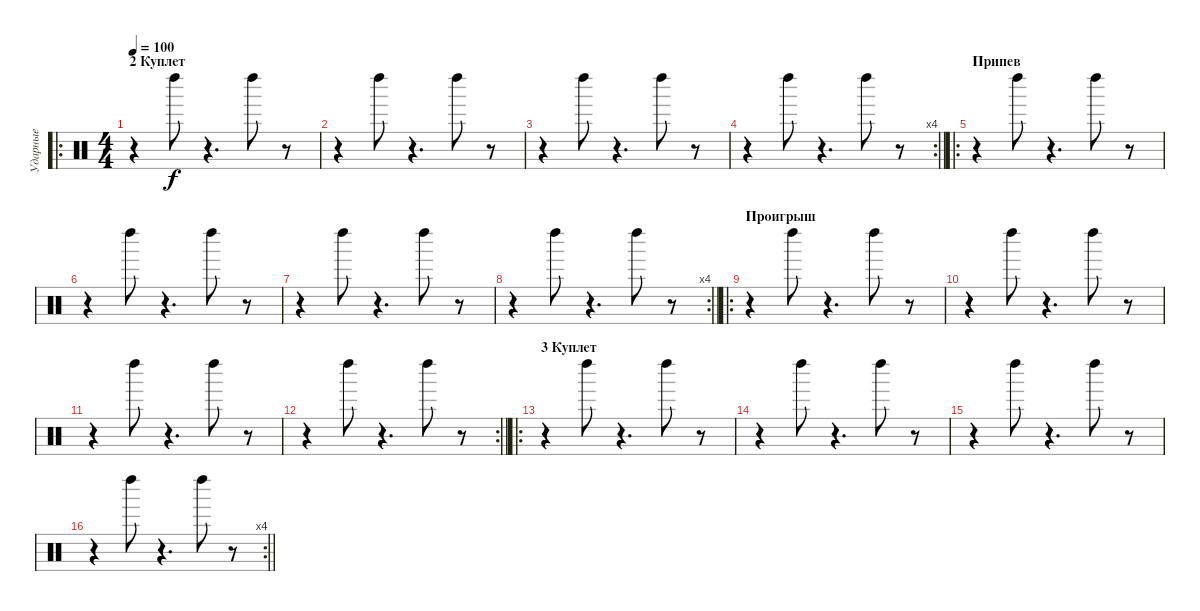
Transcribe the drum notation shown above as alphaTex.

\track ("Ударные" "Ударные") {instrument percussion}
\staff {score}
\articulation defaults
\ro
\ts (4 4)
\section ("" "2 Куплет")
\tempo 100
\clef neutral
\ks c
r.4{dy f} "Left Maraca (hit)".8 r.4{d} "Left Maraca (hit)".8 r.8 |
r.4 "Left Maraca (hit)".8 r.4{d} "Left Maraca (hit)".8 r.8 |
r.4 "Left Maraca (hit)".8 r.4{d} "Left Maraca (hit)".8 r.8 |
\rc 4
\barLineRight lightlight
r.4 "Left Maraca (hit)".8 r.4{d} "Left Maraca (hit)".8 r.8 |
\ro
\section ("" "Припев")
r.4 "Left Maraca (hit)".8 r.4{d} "Left Maraca (hit)".8 r.8 |
r.4 "Left Maraca (hit)".8 r.4{d} "Left Maraca (hit)".8 r.8 |
r.4 "Left Maraca (hit)".8 r.4{d} "Left Maraca (hit)".8 r.8 |
\rc 4
\barLineRight lightlight
r.4 "Left Maraca (hit)".8 r.4{d} "Left Maraca (hit)".8 r.8 |
\ro
\section ("" "Проигрыш")
r.4 "Left Maraca (hit)".8 r.4{d} "Left Maraca (hit)".8 r.8 |
r.4 "Left Maraca (hit)".8 r.4{d} "Left Maraca (hit)".8 r.8 |
r.4 "Left Maraca (hit)".8 r.4{d} "Left Maraca (hit)".8 r.8 |
\rc 2
\barLineRight lightlight
r.4 "Left Maraca (hit)".8 r.4{d} "Left Maraca (hit)".8 r.8 |
\ro
\section ("" "3 Куплет")
r.4 "Left Maraca (hit)".8 r.4{d} "Left Maraca (hit)".8 r.8 |
r.4 "Left Maraca (hit)".8 r.4{d} "Left Maraca (hit)".8 r.8 |
r.4 "Left Maraca (hit)".8 r.4{d} "Left Maraca (hit)".8 r.8 |
\rc 4
\barLineRight lightlight
r.4 "Left Maraca (hit)".8 r.4{d} "Left Maraca (hit)".8 r.8
